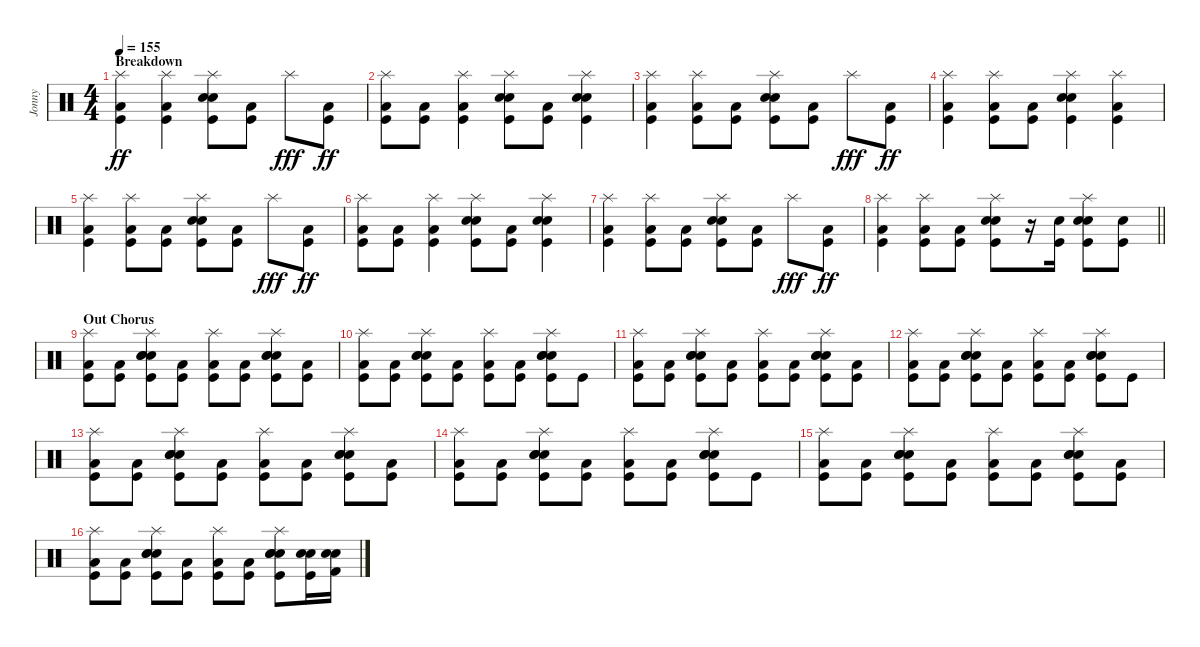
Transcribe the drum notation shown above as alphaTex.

\track ("Jonny" "Jonny") {instrument percussion}
\staff {score}
\articulation defaults
\ts (4 4)
\section ("" "Breakdown")
\tempo 155
\clef neutral
\ks c
("Splash (hit)" "Low Floor Tom (hit)" "Kick (hit)").4{dy ff} ("Splash (hit)" "Low Floor Tom (hit)" "Kick (hit)").4 ("Splash (hit)" "Electric Snare (hit)" "Electric Snare (hit)" "Kick (hit)").8 ("Low Floor Tom (hit)" "Kick (hit)").8 "Splash (hit)".8{dy fff} ("Low Floor Tom (hit)" "Kick (hit)").8{dy ff} |
("Splash (hit)" "Low Floor Tom (hit)" "Kick (hit)").8 ("Low Floor Tom (hit)" "Kick (hit)").8 ("Splash (hit)" "Low Floor Tom (hit)" "Kick (hit)").4 ("Splash (hit)" "Electric Snare (hit)" "Electric Snare (hit)" "Kick (hit)").8 ("Low Floor Tom (hit)" "Kick (hit)").8 ("Splash (hit)" "Electric Snare (hit)" "Electric Snare (hit)" "Kick (hit)").4 |
("Splash (hit)" "Low Floor Tom (hit)" "Kick (hit)").4 ("Splash (hit)" "Low Floor Tom (hit)" "Kick (hit)").8 ("Low Floor Tom (hit)" "Kick (hit)").8 ("Splash (hit)" "Electric Snare (hit)" "Electric Snare (hit)" "Kick (hit)").8 ("Low Floor Tom (hit)" "Kick (hit)").8 "Splash (hit)".8{dy fff} ("Low Floor Tom (hit)" "Kick (hit)").8{dy ff} |
("Splash (hit)" "Low Floor Tom (hit)" "Kick (hit)").4 ("Splash (hit)" "Low Floor Tom (hit)" "Kick (hit)").8 ("Low Floor Tom (hit)" "Kick (hit)").8 ("Splash (hit)" "Electric Snare (hit)" "Electric Snare (hit)" "Kick (hit)").4 ("Splash (hit)" "Low Floor Tom (hit)" "Kick (hit)").4 |
("Splash (hit)" "Low Floor Tom (hit)" "Kick (hit)").4 ("Splash (hit)" "Low Floor Tom (hit)" "Kick (hit)").8 ("Low Floor Tom (hit)" "Kick (hit)").8 ("Splash (hit)" "Electric Snare (hit)" "Electric Snare (hit)" "Kick (hit)").8 ("Low Floor Tom (hit)" "Kick (hit)").8 "Splash (hit)".8{dy fff} ("Low Floor Tom (hit)" "Kick (hit)").8{dy ff} |
("Splash (hit)" "Low Floor Tom (hit)" "Kick (hit)").8 ("Low Floor Tom (hit)" "Kick (hit)").8 ("Splash (hit)" "Low Floor Tom (hit)" "Kick (hit)").4 ("Splash (hit)" "Electric Snare (hit)" "Electric Snare (hit)" "Kick (hit)").8 ("Low Floor Tom (hit)" "Kick (hit)").8 ("Splash (hit)" "Electric Snare (hit)" "Electric Snare (hit)" "Kick (hit)").4 |
("Splash (hit)" "Low Floor Tom (hit)" "Kick (hit)").4 ("Splash (hit)" "Low Floor Tom (hit)" "Kick (hit)").8 ("Low Floor Tom (hit)" "Kick (hit)").8 ("Splash (hit)" "Electric Snare (hit)" "Electric Snare (hit)" "Kick (hit)").8 ("Low Floor Tom (hit)" "Kick (hit)").8 "Splash (hit)".8{dy fff} ("Low Floor Tom (hit)" "Kick (hit)").8{dy ff} |
\barLineRight lightlight
("Splash (hit)" "Low Floor Tom (hit)" "Kick (hit)").4 ("Splash (hit)" "Low Floor Tom (hit)" "Kick (hit)").8 ("Low Floor Tom (hit)" "Kick (hit)").8 ("Splash (hit)" "Electric Snare (hit)" "Electric Snare (hit)" "Kick (hit)").8 r.16 ("Electric Snare (hit)" "Kick (hit)").16 ("Splash (hit)" "Electric Snare (hit)" "Electric Snare (hit)" "Kick (hit)").8 ("Electric Snare (hit)" "Kick (hit)").8 |
\section ("" "Out Chorus")
("Splash (hit)" "Low Floor Tom (hit)" "Kick (hit)").8 ("Low Floor Tom (hit)" "Kick (hit)").8 ("Splash (hit)" "Electric Snare (hit)" "Electric Snare (hit)" "Electric Snare (hit)" "Kick (hit)").8 ("Low Floor Tom (hit)" "Kick (hit)").8 ("Splash (hit)" "Low Floor Tom (hit)" "Kick (hit)").8 ("Low Floor Tom (hit)" "Kick (hit)").8 ("Splash (hit)" "Electric Snare (hit)" "Electric Snare (hit)" "Electric Snare (hit)" "Kick (hit)").8 ("Low Floor Tom (hit)" "Kick (hit)").8 |
("Splash (hit)" "Low Floor Tom (hit)" "Kick (hit)").8 ("Low Floor Tom (hit)" "Kick (hit)").8 ("Splash (hit)" "Electric Snare (hit)" "Electric Snare (hit)" "Electric Snare (hit)" "Kick (hit)").8 ("Low Floor Tom (hit)" "Kick (hit)").8 ("Splash (hit)" "Low Floor Tom (hit)" "Kick (hit)").8 ("Low Floor Tom (hit)" "Kick (hit)").8 ("Splash (hit)" "Electric Snare (hit)" "Electric Snare (hit)" "Electric Snare (hit)" "Kick (hit)").8 "Kick (hit)".8 |
("Splash (hit)" "Low Floor Tom (hit)" "Kick (hit)").8 ("Low Floor Tom (hit)" "Kick (hit)").8 ("Splash (hit)" "Electric Snare (hit)" "Electric Snare (hit)" "Electric Snare (hit)" "Kick (hit)").8 ("Low Floor Tom (hit)" "Kick (hit)").8 ("Splash (hit)" "Low Floor Tom (hit)" "Kick (hit)").8 ("Low Floor Tom (hit)" "Kick (hit)").8 ("Splash (hit)" "Electric Snare (hit)" "Electric Snare (hit)" "Electric Snare (hit)" "Kick (hit)").8 ("Low Floor Tom (hit)" "Kick (hit)").8 |
("Splash (hit)" "Low Floor Tom (hit)" "Kick (hit)").8 ("Low Floor Tom (hit)" "Kick (hit)").8 ("Splash (hit)" "Electric Snare (hit)" "Electric Snare (hit)" "Electric Snare (hit)" "Kick (hit)").8 ("Low Floor Tom (hit)" "Kick (hit)").8 ("Splash (hit)" "Low Floor Tom (hit)" "Kick (hit)").8 ("Low Floor Tom (hit)" "Kick (hit)").8 ("Splash (hit)" "Electric Snare (hit)" "Electric Snare (hit)" "Electric Snare (hit)" "Kick (hit)").8 "Kick (hit)".8 |
("Splash (hit)" "Low Floor Tom (hit)" "Kick (hit)").8 ("Low Floor Tom (hit)" "Kick (hit)").8 ("Splash (hit)" "Electric Snare (hit)" "Electric Snare (hit)" "Electric Snare (hit)" "Kick (hit)").8 ("Low Floor Tom (hit)" "Kick (hit)").8 ("Splash (hit)" "Low Floor Tom (hit)" "Kick (hit)").8 ("Low Floor Tom (hit)" "Kick (hit)").8 ("Splash (hit)" "Electric Snare (hit)" "Electric Snare (hit)" "Electric Snare (hit)" "Kick (hit)").8 ("Low Floor Tom (hit)" "Kick (hit)").8 |
("Splash (hit)" "Low Floor Tom (hit)" "Kick (hit)").8 ("Low Floor Tom (hit)" "Kick (hit)").8 ("Splash (hit)" "Electric Snare (hit)" "Electric Snare (hit)" "Electric Snare (hit)" "Kick (hit)").8 ("Low Floor Tom (hit)" "Kick (hit)").8 ("Splash (hit)" "Low Floor Tom (hit)" "Kick (hit)").8 ("Low Floor Tom (hit)" "Kick (hit)").8 ("Splash (hit)" "Electric Snare (hit)" "Electric Snare (hit)" "Electric Snare (hit)" "Kick (hit)").8 "Kick (hit)".8 |
("Splash (hit)" "Low Floor Tom (hit)" "Kick (hit)").8 ("Low Floor Tom (hit)" "Kick (hit)").8 ("Splash (hit)" "Electric Snare (hit)" "Electric Snare (hit)" "Electric Snare (hit)" "Kick (hit)").8 ("Low Floor Tom (hit)" "Kick (hit)").8 ("Splash (hit)" "Low Floor Tom (hit)" "Kick (hit)").8 ("Low Floor Tom (hit)" "Kick (hit)").8 ("Splash (hit)" "Electric Snare (hit)" "Electric Snare (hit)" "Electric Snare (hit)" "Kick (hit)").8 ("Low Floor Tom (hit)" "Kick (hit)").8 |
("Splash (hit)" "Low Floor Tom (hit)" "Kick (hit)").8 ("Low Floor Tom (hit)" "Kick (hit)").8 ("Splash (hit)" "Electric Snare (hit)" "Electric Snare (hit)" "Electric Snare (hit)" "Kick (hit)").8 ("Low Floor Tom (hit)" "Kick (hit)").8 ("Splash (hit)" "Low Floor Tom (hit)" "Kick (hit)").8 ("Low Floor Tom (hit)" "Kick (hit)").8 ("Splash (hit)" "Electric Snare (hit)" "Electric Snare (hit)" "Electric Snare (hit)" "Kick (hit)").8 ("Electric Snare (hit)" "Electric Snare (hit)" "Kick (hit)").16 ("Electric Snare (hit)" "Electric Snare (hit)" "Kick (hit) 2").16
